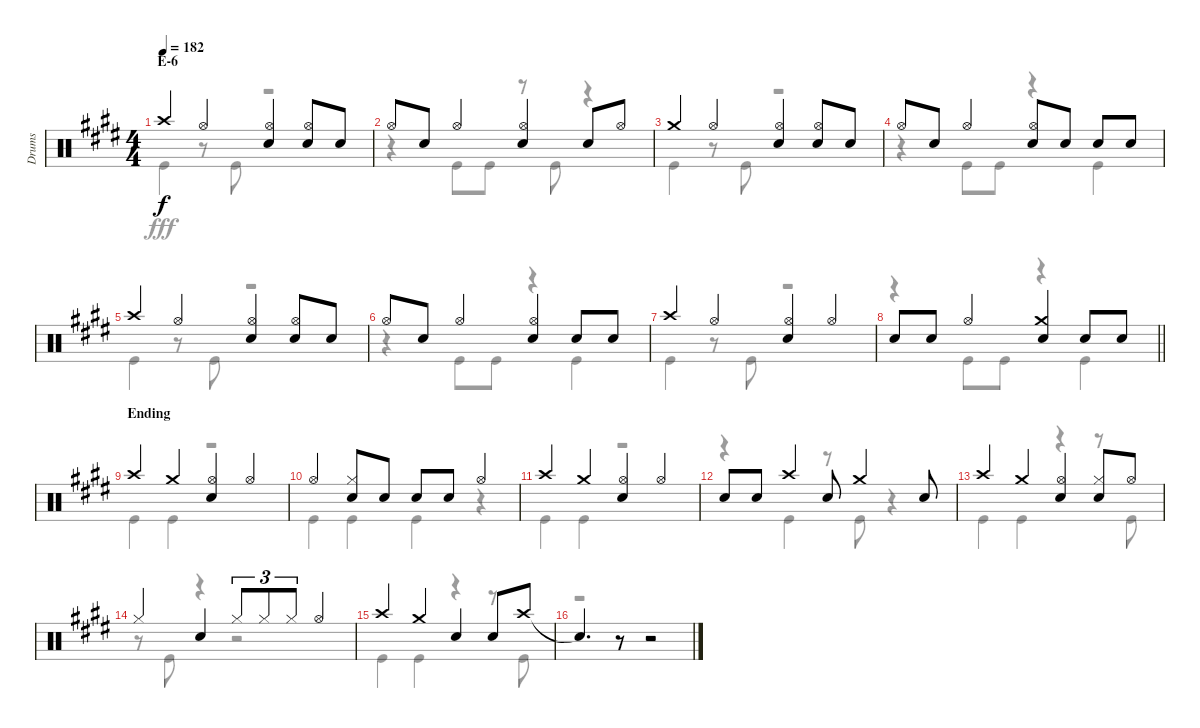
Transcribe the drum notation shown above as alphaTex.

\track ("Drums" "Drums") {instrument percussion}
\staff {score}
\articulation defaults
\voice
\ts (4 4)
\section ("" "E-6")
\tempo 182
\clef neutral
\ks e "Crash high (hit)".4{dy f} "Hi-Hat (open)".4
("Hi-Hat (open)" "Snare (hit) 2").4 ("Hi-Hat (open)" "Snare (hit) 2").8 "Snare (hit) 2".8 |
"Hi-Hat (open)".8 "Snare (hit) 2".8 "Hi-Hat (open)".4 ("Hi-Hat (open)" "Snare (hit) 2").4 "Snare (hit) 2".8 "Hi-Hat (open)".8 |
"Crash medium (hit)".4 "Hi-Hat (open)".4 ("Hi-Hat (open)" "Snare (hit) 2").4 ("Hi-Hat (open)" "Snare (hit) 2").8 "Snare (hit) 2".8 |
"Hi-Hat (open)".8 "Snare (hit) 2".8 "Hi-Hat (open)".4 ("Hi-Hat (open)" "Snare (hit) 2").8 "Snare (hit) 2".8 "Snare (hit) 2".8 "Snare (hit) 2".8 |
"Crash high (hit)".4 "Hi-Hat (open)".4 ("Hi-Hat (open)" "Snare (hit) 2").4 ("Hi-Hat (open)" "Snare (hit) 2").8 "Snare (hit) 2".8 |
"Hi-Hat (open)".8 "Snare (hit) 2".8 "Hi-Hat (open)".4 ("Hi-Hat (open)" "Snare (hit) 2").4 "Snare (hit) 2".8 "Snare (hit) 2".8 |
"Crash high (hit)".4 "Hi-Hat (open)".4 ("Hi-Hat (open)" "Snare (hit) 2").4 "Hi-Hat (open)".4 |
\barLineRight lightlight "Snare (hit) 2".8 "Snare (hit) 2".8 "Hi-Hat (open)".4
("Crash medium (hit)" "Snare (hit) 2").4 "Snare (hit) 2".8 "Snare (hit) 2".8 |
\section ("" "Ending")
"Crash high (hit)".4 "Crash medium (hit)".4 ("Hi-Hat (open)" "Snare (hit) 2").4 "Hi-Hat (open)".4 |
"Hi-Hat (open)".4 ("Hi-Hat (closed)" "Snare (hit) 2").8 "Snare (hit) 2".8 "Snare (hit) 2".8 "Snare (hit) 2".8 "Hi-Hat (open)".4 |
"Crash high (hit)".4 "Crash medium (hit)".4 ("Hi-Hat (open)" "Snare (hit) 2").4 "Hi-Hat (open)".4 |
"Snare (hit) 2".8 "Snare (hit) 2".8 "Crash high (hit)".4 "Snare (hit) 2".8 "Crash medium (hit)".4 "Snare (hit) 2".8 |
"Crash high (hit)".4 "Crash medium (hit)".4 ("Hi-Hat (open)" "Snare (hit) 2").4 ("Hi-Hat (closed)" "Snare (hit) 2").8 "Hi-Hat (open)".8 |
"Hi-Hat (closed)".4 "Snare (hit) 2".4 "Hi-Hat (closed)".8{tu (3 2)} "Hi-Hat (closed)".8{tu (3 2)} "Hi-Hat (closed)".8{tu (3 2)} "Hi-Hat (open)".4 |
"Crash high (hit)".4 "Crash medium (hit)".4 "Snare (hit) 2".4 "Snare (hit) 2".8 "Crash high (hit)".8 |
"Snare (hit)"{t}.4{d} r.8 r.2
\voice
\clef neutral
\ottava regular
\simile none
\ks e "Kick (hit)".4{dy fff}
r.8 "Kick (hit)".8 r.2 |
r.4 "Kick (hit)".8 "Kick (hit)".8 r.8 "Kick (hit)".8 r.4 |
"Kick (hit)".4 r.8 "Kick (hit)".8 r.2 |
r.4 "Kick (hit)".8 "Kick (hit)".8 r.4 "Kick (hit)".4 |
"Kick (hit)".4 r.8 "Kick (hit)".8 r.2 |
r.4 "Kick (hit)".8 "Kick (hit)".8 r.4 "Kick (hit)".4 |
"Kick (hit)".4 r.8 "Kick (hit)".8 r.2 |
\barLineRight lightlight
r.4 "Kick (hit)".8 "Kick (hit)".8 r.4 "Kick (hit)".4 |
"Kick (hit)".4 "Kick (hit)".4 r.2 |
"Kick (hit)".4 "Kick (hit)".4 "Kick (hit)".4 r.4 |
"Kick (hit)".4 "Kick (hit)".4 r.2 |
r.4 "Kick (hit)".4 r.8 "Kick (hit)".8 r.4 |
"Kick (hit)".4 "Kick (hit)".4 r.4 r.8 "Kick (hit)".8 |
r.8 "Kick (hit)".8 r.4 r.2 |
"Kick (hit)".4 "Kick (hit)".4 r.4 r.8 "Kick (hit)".8 |
r.1
